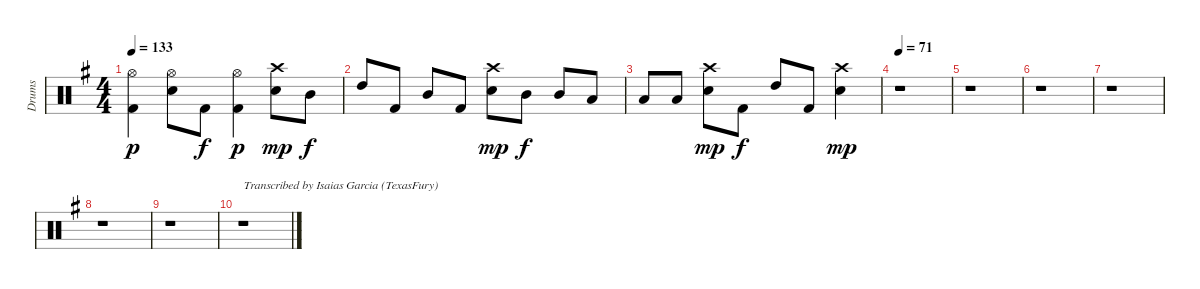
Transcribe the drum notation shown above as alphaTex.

\track ("Drums" "Drums") {instrument percussion}
\staff {score}
\articulation defaults
\ts (4 4)
\tempo 133
\clef neutral
\ks g
("Kick (hit) 2" "Hi-Hat (open)").4{dy p} ("Electric Snare (hit)" "Hi-Hat (open)").8 "Kick (hit) 2".8{dy f} ("Kick (hit) 2" "Hi-Hat (open)").4{dy p} ("Electric Snare (hit)" "Crash high (hit)").8{dy mp} "Mid Tom (hit)".8{dy f} |
"High Tom (hit)".8 "Kick (hit) 2".8 "Mid Tom (hit)".8 "Kick (hit) 2".8 ("Electric Snare (hit)" "Crash high (hit)").8{dy mp} "Mid Tom (hit)".8{dy f} "Mid Tom (hit)".8 "Low Tom (hit)".8 |
"Low Tom (hit)".8 "Low Tom (hit)".8 ("Electric Snare (hit)" "Crash high (hit)").8{dy mp} "Kick (hit) 2".8{dy f} "High Tom (hit)".8 "Kick (hit) 2".8 ("Electric Snare (hit)" "Crash high (hit)").4{dy mp} |
\tempo 71
r.1 |
r.1 |
r.1 |
r.1 |
r.1 |
r.1 |
\ks eminor
r.1{txt "Transcribed by Isaias Garcia (TexasFury)"}
